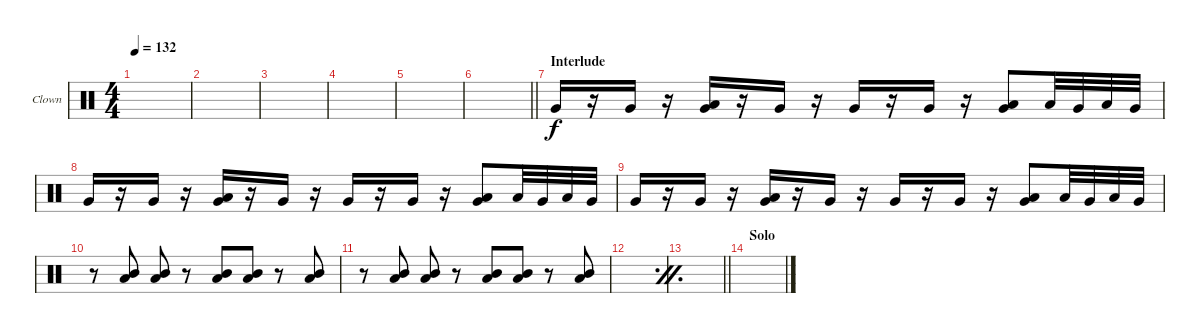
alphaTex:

\bracketExtendMode groupsimilarinstruments
\firstSystemTrackNameOrientation horizontal
\otherSystemsTrackNameOrientation horizontal
\track ("Clown" "Clown") {instrument percussion}
\staff {score}
\articulation defaults
\ts (4 4)
\tempo 132
\clef neutral
\ks c
|
|
|
|
|
\barLineRight lightlight
|
\section ("" "Interlude")
"Very Low Tom (hit)".16 r.16 "Very Low Tom (hit)".16 r.16 ("Very Low Tom (hit)" "Low Tom (hit)").16 r.16 "Very Low Tom (hit)".16 r.16 "Very Low Tom (hit)".16 r.16 "Very Low Tom (hit)".16 r.16 ("Very Low Tom (hit)" "Low Tom (hit)").8 "Low Tom (hit)".32 "Very Low Tom (hit)".32 "Low Tom (hit)".32 "Very Low Tom (hit)".32 |
"Very Low Tom (hit)".16 r.16 "Very Low Tom (hit)".16 r.16 ("Very Low Tom (hit)" "Low Tom (hit)").16 r.16 "Very Low Tom (hit)".16 r.16 "Very Low Tom (hit)".16 r.16 "Very Low Tom (hit)".16 r.16 ("Very Low Tom (hit)" "Low Tom (hit)").8 "Low Tom (hit)".32 "Very Low Tom (hit)".32 "Low Tom (hit)".32 "Very Low Tom (hit)".32 |
"Very Low Tom (hit)".16 r.16 "Very Low Tom (hit)".16 r.16 ("Very Low Tom (hit)" "Low Tom (hit)").16 r.16 "Very Low Tom (hit)".16 r.16 "Very Low Tom (hit)".16 r.16 "Very Low Tom (hit)".16 r.16 ("Very Low Tom (hit)" "Low Tom (hit)").8 "Low Tom (hit)".32 "Very Low Tom (hit)".32 "Low Tom (hit)".32 "Very Low Tom (hit)".32 |
r.8 ("Mid Tom (hit)" "Low Tom (hit)").8 ("Mid Tom (hit)" "Low Tom (hit)").8 r.8 ("Mid Tom (hit)" "Low Tom (hit)").8 ("Mid Tom (hit)" "Low Tom (hit)").8 r.8 ("Mid Tom (hit)" "Low Tom (hit)").8 |
r.8 ("Mid Tom (hit)" "Low Tom (hit)").8 ("Mid Tom (hit)" "Low Tom (hit)").8 r.8 ("Mid Tom (hit)" "Low Tom (hit)").8 ("Mid Tom (hit)" "Low Tom (hit)").8 r.8 ("Mid Tom (hit)" "Low Tom (hit)").8 |
\simile firstofdouble
|
\simile secondofdouble
\barLineRight lightlight
|
\section ("" "Solo")
\simile none
